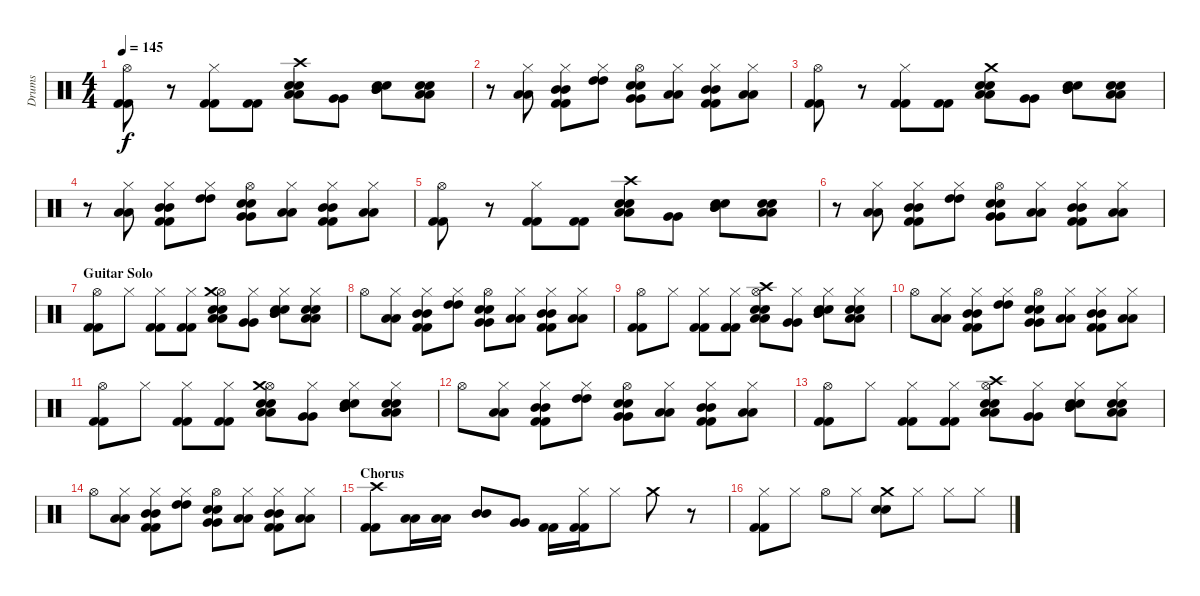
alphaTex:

\track ("Drums" "Drums") {instrument percussion}
\staff {score}
\articulation defaults
\ts (4 4)
\tempo 145
\clef neutral
\ks c
("Hi-Hat (open)" "Kick (hit) 2" "Kick (hit) 2").8{dy f} r.8 ("Hi-Hat (closed)" "Kick (hit) 2" "Kick (hit) 2").8 ("Kick (hit) 2" "Kick (hit) 2").8 ("Crash high (hit)" "Snare (hit) 2" "Low Tom (hit)" "Low Tom (hit)" "Snare (hit) 2").8 ("Very Low Tom (hit)" "Very Low Tom (hit)").8 ("Snare (hit) 2" "Mid Tom (hit)" "Mid Tom (hit)" "Snare (hit) 2").8 ("Snare (hit) 2" "Low Floor Tom (hit)" "Low Floor Tom (hit)" "Snare (hit) 2").8 |
r.8 ("Hi-Hat (closed)" "Low Tom (hit)" "Low Tom (hit)").8 ("Hi-Hat (closed)" "Kick (hit) 2" "Mid Tom (hit)" "Mid Tom (hit)" "Kick (hit) 2").8 ("Hi-Hat (closed)" "High Tom (hit)" "High Tom (hit)").8 ("Hi-Hat (open)" "Snare (hit) 2" "Very Low Tom (hit)" "Very Low Tom (hit)" "Snare (hit) 2").8 ("Hi-Hat (closed)" "Low Floor Tom (hit)" "Low Floor Tom (hit)").8 ("Hi-Hat (closed)" "Kick (hit) 2" "Mid Tom (hit)" "Mid Tom (hit)" "Kick (hit) 2").8 ("Hi-Hat (closed)" "Low Tom (hit)" "Low Tom (hit)").8 |
("Hi-Hat (open)" "Kick (hit) 2" "Kick (hit) 2").8 r.8 ("Hi-Hat (closed)" "Kick (hit) 2" "Kick (hit) 2").8 ("Kick (hit) 2" "Kick (hit) 2").8 ("Crash medium (hit)" "Snare (hit) 2" "Low Tom (hit)" "Low Tom (hit)" "Snare (hit) 2").8 ("Very Low Tom (hit)" "Very Low Tom (hit)").8 ("Snare (hit) 2" "Mid Tom (hit)" "Mid Tom (hit)" "Snare (hit) 2").8 ("Snare (hit) 2" "Low Floor Tom (hit)" "Low Floor Tom (hit)" "Snare (hit) 2").8 |
r.8 ("Hi-Hat (closed)" "Low Tom (hit)" "Low Tom (hit)").8 ("Hi-Hat (closed)" "Kick (hit) 2" "Mid Tom (hit)" "Mid Tom (hit)" "Kick (hit) 2").8 ("Hi-Hat (closed)" "High Tom (hit)" "High Tom (hit)").8 ("Hi-Hat (open)" "Snare (hit) 2" "Very Low Tom (hit)" "Very Low Tom (hit)" "Snare (hit) 2").8 ("Hi-Hat (closed)" "Low Floor Tom (hit)" "Low Floor Tom (hit)").8 ("Hi-Hat (closed)" "Kick (hit) 2" "Mid Tom (hit)" "Mid Tom (hit)" "Kick (hit) 2").8 ("Hi-Hat (closed)" "Low Tom (hit)" "Low Tom (hit)").8 |
("Hi-Hat (open)" "Kick (hit) 2" "Kick (hit) 2").8 r.8 ("Hi-Hat (closed)" "Kick (hit) 2" "Kick (hit) 2").8 ("Kick (hit) 2" "Kick (hit) 2").8 ("Crash high (hit)" "Snare (hit) 2" "Low Tom (hit)" "Low Tom (hit)" "Snare (hit) 2").8 ("Very Low Tom (hit)" "Very Low Tom (hit)").8 ("Snare (hit) 2" "Mid Tom (hit)" "Mid Tom (hit)" "Snare (hit) 2").8 ("Snare (hit) 2" "Low Floor Tom (hit)" "Low Floor Tom (hit)" "Snare (hit) 2").8 |
r.8 ("Hi-Hat (closed)" "Low Tom (hit)" "Low Tom (hit)").8 ("Hi-Hat (closed)" "Kick (hit) 2" "Mid Tom (hit)" "Mid Tom (hit)" "Kick (hit) 2").8 ("Hi-Hat (closed)" "High Tom (hit)" "High Tom (hit)").8 ("Hi-Hat (open)" "Snare (hit) 2" "Very Low Tom (hit)" "Very Low Tom (hit)" "Snare (hit) 2").8 ("Hi-Hat (closed)" "Low Floor Tom (hit)" "Low Floor Tom (hit)").8 ("Hi-Hat (closed)" "Kick (hit) 2" "Mid Tom (hit)" "Mid Tom (hit)" "Kick (hit) 2").8 ("Hi-Hat (closed)" "Low Tom (hit)" "Low Tom (hit)").8 |
\section ("" "Guitar Solo")
("Hi-Hat (open)" "Kick (hit) 2" "Kick (hit) 2").8 "Hi-Hat (closed)".8 ("Hi-Hat (closed)" "Kick (hit) 2" "Kick (hit) 2").8 ("Hi-Hat (closed)" "Kick (hit) 2" "Kick (hit) 2").8 ("Hi-Hat (open)" "Crash medium (hit)" "Snare (hit) 2" "Low Tom (hit)" "Low Tom (hit)" "Snare (hit) 2").8 ("Hi-Hat (closed)" "Very Low Tom (hit)" "Very Low Tom (hit)").8 ("Hi-Hat (closed)" "Snare (hit) 2" "Mid Tom (hit)" "Mid Tom (hit)" "Snare (hit) 2").8 ("Hi-Hat (closed)" "Snare (hit) 2" "Low Floor Tom (hit)" "Low Floor Tom (hit)" "Snare (hit) 2").8 |
"Hi-Hat (open)".8 ("Hi-Hat (closed)" "Low Tom (hit)" "Low Tom (hit)").8 ("Hi-Hat (closed)" "Kick (hit) 2" "Mid Tom (hit)" "Mid Tom (hit)" "Kick (hit) 2").8 ("Hi-Hat (closed)" "High Tom (hit)" "High Tom (hit)").8 ("Hi-Hat (open)" "Snare (hit) 2" "Very Low Tom (hit)" "Very Low Tom (hit)" "Snare (hit) 2").8 ("Hi-Hat (closed)" "Low Floor Tom (hit)" "Low Floor Tom (hit)").8 ("Hi-Hat (closed)" "Kick (hit) 2" "Mid Tom (hit)" "Mid Tom (hit)" "Kick (hit) 2").8 ("Hi-Hat (closed)" "Low Tom (hit)" "Low Tom (hit)").8 |
("Hi-Hat (open)" "Kick (hit) 2" "Kick (hit) 2").8 "Hi-Hat (closed)".8 ("Hi-Hat (closed)" "Kick (hit) 2" "Kick (hit) 2").8 ("Hi-Hat (closed)" "Kick (hit) 2" "Kick (hit) 2").8 ("Hi-Hat (open)" "Crash high (hit)" "Snare (hit) 2" "Low Tom (hit)" "Low Tom (hit)" "Snare (hit) 2").8 ("Hi-Hat (closed)" "Very Low Tom (hit)" "Very Low Tom (hit)").8 ("Hi-Hat (closed)" "Snare (hit) 2" "Mid Tom (hit)" "Mid Tom (hit)" "Snare (hit) 2").8 ("Hi-Hat (closed)" "Snare (hit) 2" "Low Floor Tom (hit)" "Low Floor Tom (hit)" "Snare (hit) 2").8 |
"Hi-Hat (open)".8 ("Hi-Hat (closed)" "Low Tom (hit)" "Low Tom (hit)").8 ("Hi-Hat (closed)" "Kick (hit) 2" "Mid Tom (hit)" "Mid Tom (hit)" "Kick (hit) 2").8 ("Hi-Hat (closed)" "High Tom (hit)" "High Tom (hit)").8 ("Hi-Hat (open)" "Snare (hit) 2" "Very Low Tom (hit)" "Very Low Tom (hit)" "Snare (hit) 2").8 ("Hi-Hat (closed)" "Low Floor Tom (hit)" "Low Floor Tom (hit)").8 ("Hi-Hat (closed)" "Kick (hit) 2" "Mid Tom (hit)" "Mid Tom (hit)" "Kick (hit) 2").8 ("Hi-Hat (closed)" "Low Tom (hit)" "Low Tom (hit)").8 |
("Hi-Hat (open)" "Kick (hit) 2" "Kick (hit) 2").8 "Hi-Hat (closed)".8 ("Hi-Hat (closed)" "Kick (hit) 2" "Kick (hit) 2").8 ("Hi-Hat (closed)" "Kick (hit) 2" "Kick (hit) 2").8 ("Hi-Hat (open)" "Crash medium (hit)" "Snare (hit) 2" "Low Tom (hit)" "Low Tom (hit)" "Snare (hit) 2").8 ("Hi-Hat (closed)" "Very Low Tom (hit)" "Very Low Tom (hit)").8 ("Hi-Hat (closed)" "Snare (hit) 2" "Mid Tom (hit)" "Mid Tom (hit)" "Snare (hit) 2").8 ("Hi-Hat (closed)" "Snare (hit) 2" "Low Floor Tom (hit)" "Low Floor Tom (hit)" "Snare (hit) 2").8 |
"Hi-Hat (open)".8 ("Hi-Hat (closed)" "Low Tom (hit)" "Low Tom (hit)").8 ("Hi-Hat (closed)" "Kick (hit) 2" "Mid Tom (hit)" "Mid Tom (hit)" "Kick (hit) 2").8 ("Hi-Hat (closed)" "High Tom (hit)" "High Tom (hit)").8 ("Hi-Hat (open)" "Snare (hit) 2" "Very Low Tom (hit)" "Very Low Tom (hit)" "Snare (hit) 2").8 ("Hi-Hat (closed)" "Low Floor Tom (hit)" "Low Floor Tom (hit)").8 ("Hi-Hat (closed)" "Kick (hit) 2" "Mid Tom (hit)" "Mid Tom (hit)" "Kick (hit) 2").8 ("Hi-Hat (closed)" "Low Tom (hit)" "Low Tom (hit)").8 |
("Hi-Hat (open)" "Kick (hit) 2" "Kick (hit) 2").8 "Hi-Hat (closed)".8 ("Hi-Hat (closed)" "Kick (hit) 2" "Kick (hit) 2").8 ("Hi-Hat (closed)" "Kick (hit) 2" "Kick (hit) 2").8 ("Hi-Hat (open)" "Crash high (hit)" "Snare (hit) 2" "Low Tom (hit)" "Low Tom (hit)" "Snare (hit) 2").8 ("Hi-Hat (closed)" "Very Low Tom (hit)" "Very Low Tom (hit)").8 ("Hi-Hat (closed)" "Snare (hit) 2" "Mid Tom (hit)" "Mid Tom (hit)" "Snare (hit) 2").8 ("Hi-Hat (closed)" "Snare (hit) 2" "Low Floor Tom (hit)" "Low Floor Tom (hit)" "Snare (hit) 2").8 |
"Hi-Hat (open)".8 ("Hi-Hat (closed)" "Low Tom (hit)" "Low Tom (hit)").8 ("Hi-Hat (closed)" "Kick (hit) 2" "Mid Tom (hit)" "Mid Tom (hit)" "Kick (hit) 2").8 ("Hi-Hat (closed)" "High Tom (hit)" "High Tom (hit)").8 ("Hi-Hat (open)" "Snare (hit) 2" "Very Low Tom (hit)" "Very Low Tom (hit)" "Snare (hit) 2").8 ("Hi-Hat (closed)" "Low Floor Tom (hit)" "Low Floor Tom (hit)").8 ("Hi-Hat (closed)" "Kick (hit) 2" "Mid Tom (hit)" "Mid Tom (hit)" "Kick (hit) 2").8 ("Hi-Hat (closed)" "Low Tom (hit)" "Low Tom (hit)").8 |
\section ("" "Chorus")
("Crash high (hit)" "Kick (hit) 2" "Kick (hit) 2").8 ("Low Tom (hit)" "Low Tom (hit)").16 ("Low Tom (hit)" "Low Tom (hit)").16 ("Mid Tom (hit)" "Mid Tom (hit)").8 ("Very Low Tom (hit)" "Very Low Tom (hit)").8 ("Kick (hit) 2" "Kick (hit) 2").16 ("Hi-Hat (closed)" "Kick (hit) 2" "Kick (hit) 2").16 "Hi-Hat (closed)".8 "Crash medium (hit)".8 r.8 |
("Hi-Hat (closed)" "Kick (hit) 2" "Kick (hit) 2").8 "Hi-Hat (closed)".8 "Hi-Hat (open)".8 "Hi-Hat (closed)".8 ("Crash medium (hit)" "Snare (hit) 2" "Snare (hit) 2").8 "Hi-Hat (closed)".8 "Hi-Hat (closed)".8 "Hi-Hat (closed)".8
